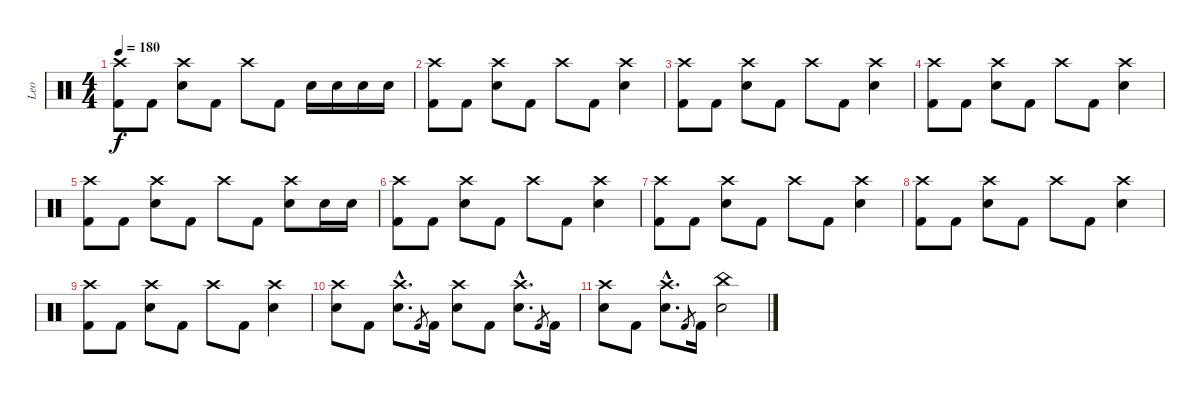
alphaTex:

\track ("Leo" "Leo") {instrument percussion}
\staff {score}
\articulation defaults
\ts (4 4)
\tempo 180
\clef neutral
\ks c
("Crash high (hit)" "Kick (hit) 2").8{dy f} "Kick (hit) 2".8 ("Crash high (hit)" "Electric Snare (hit)").8 "Kick (hit) 2".8 "Crash high (hit)".8 "Kick (hit) 2".8 "Electric Snare (hit)".16 "Electric Snare (hit)".16 "Electric Snare (hit)".16 "Electric Snare (hit)".16 |
("Crash high (hit)" "Kick (hit) 2").8 "Kick (hit) 2".8 ("Crash high (hit)" "Electric Snare (hit)").8 "Kick (hit) 2".8 "Crash high (hit)".8 "Kick (hit) 2".8 ("Crash high (hit)" "Electric Snare (hit)").4 |
("Crash high (hit)" "Kick (hit) 2").8 "Kick (hit) 2".8 ("Crash high (hit)" "Electric Snare (hit)").8 "Kick (hit) 2".8 "Crash high (hit)".8 "Kick (hit) 2".8 ("Crash high (hit)" "Electric Snare (hit)").4 |
("Crash high (hit)" "Kick (hit) 2").8 "Kick (hit) 2".8 ("Crash high (hit)" "Electric Snare (hit)").8 "Kick (hit) 2".8 "Crash high (hit)".8 "Kick (hit) 2".8 ("Crash high (hit)" "Electric Snare (hit)").4 |
("Crash high (hit)" "Kick (hit) 2").8 "Kick (hit) 2".8 ("Crash high (hit)" "Electric Snare (hit)").8 "Kick (hit) 2".8 "Crash high (hit)".8 "Kick (hit) 2".8 ("Crash high (hit)" "Electric Snare (hit)").8 "Electric Snare (hit)".16 "Electric Snare (hit)".16 |
("Crash high (hit)" "Kick (hit) 2").8 "Kick (hit) 2".8 ("Crash high (hit)" "Electric Snare (hit)").8 "Kick (hit) 2".8 "Crash high (hit)".8 "Kick (hit) 2".8 ("Crash high (hit)" "Electric Snare (hit)").4 |
("Crash high (hit)" "Kick (hit) 2").8 "Kick (hit) 2".8 ("Crash high (hit)" "Electric Snare (hit)").8 "Kick (hit) 2".8 "Crash high (hit)".8 "Kick (hit) 2".8 ("Crash high (hit)" "Electric Snare (hit)").4 |
("Crash high (hit)" "Kick (hit) 2").8 "Kick (hit) 2".8 ("Crash high (hit)" "Electric Snare (hit)").8 "Kick (hit) 2".8 "Crash high (hit)".8 "Kick (hit) 2".8 ("Crash high (hit)" "Electric Snare (hit)").4 |
("Crash high (hit)" "Kick (hit) 2").8 "Kick (hit) 2".8 ("Crash high (hit)" "Electric Snare (hit)").8 "Kick (hit) 2".8 "Crash high (hit)".8 "Kick (hit) 2".8 ("Crash high (hit)" "Electric Snare (hit)").4 |
("Crash high (hit)" "Electric Snare (hit)").8 "Kick (hit) 2".8 ("Crash high (hit)"{hac} "Electric Snare (hit)"{hac}).8{d} "Kick (hit) 2".8{gr} "Kick (hit) 2".16 ("Crash high (hit)" "Electric Snare (hit)").8 "Kick (hit) 2".8 ("Crash high (hit)"{hac} "Electric Snare (hit)"{hac}).8{d} "Kick (hit) 2".8{gr} "Kick (hit) 2".16 |
("Crash high (hit)" "Electric Snare (hit)").8 "Kick (hit) 2".8 ("Crash high (hit)"{hac} "Electric Snare (hit)"{hac}).8{d} "Kick (hit) 2".8{gr} "Kick (hit) 2".16 ("China (hit)" "Electric Snare (hit)").2
